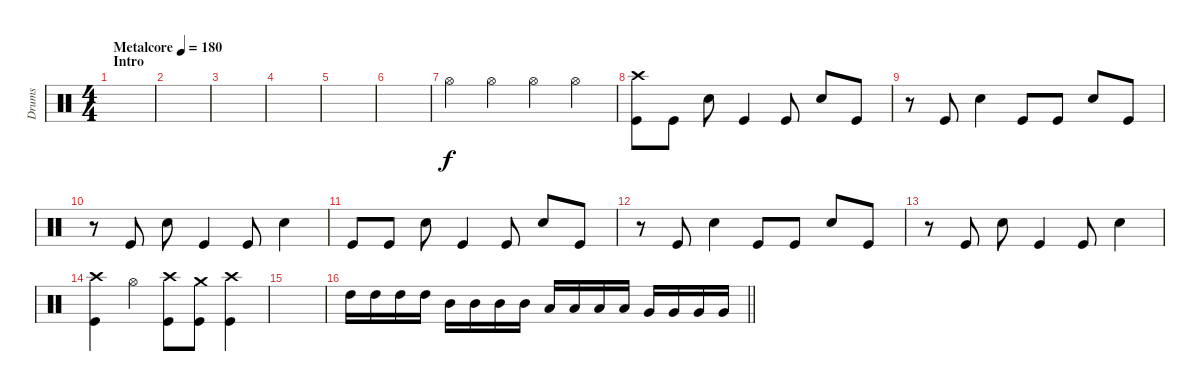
\track ("Drums" "Drums") {instrument percussion}
\staff {score}
\articulation defaults
\ts (4 4)
\section ("" "Intro")
\tempo (180 "Metalcore")
\clef neutral
\ks c
|
|
|
|
|
|
"Hi-Hat (open)".4 "Hi-Hat (open)".4 "Hi-Hat (open)".4 "Hi-Hat (open)".4 |
("Crash high (hit)" "Kick (hit)").8 "Kick (hit)".8 "Electric Snare (hit)".8 "Kick (hit)".4 "Kick (hit)".8 "Electric Snare (hit)".8 "Kick (hit)".8 |
r.8 "Kick (hit)".8 "Electric Snare (hit)".4 "Kick (hit)".8 "Kick (hit)".8 "Electric Snare (hit)".8 "Kick (hit)".8 |
r.8 "Kick (hit)".8 "Electric Snare (hit)".8 "Kick (hit)".4 "Kick (hit)".8 "Electric Snare (hit)".4 |
"Kick (hit)".8 "Kick (hit)".8 "Electric Snare (hit)".8 "Kick (hit)".4 "Kick (hit)".8 "Electric Snare (hit)".8 "Kick (hit)".8 |
r.8 "Kick (hit)".8 "Electric Snare (hit)".4 "Kick (hit)".8 "Kick (hit)".8 "Electric Snare (hit)".8 "Kick (hit)".8 |
r.8 "Kick (hit)".8 "Electric Snare (hit)".8 "Kick (hit)".4 "Kick (hit)".8 "Electric Snare (hit)".4 |
("Crash high (hit)" "Kick (hit)").4 "Hi-Hat (open)".4 ("Crash high (hit)" "Kick (hit)").8 ("Crash medium (hit)" "Kick (hit)").8 ("Crash high (hit)" "Kick (hit)").4 |
|
\barLineRight lightlight "High Tom (hit)".16 "High Tom (hit)".16 "High Tom (hit)".16 "High Tom (hit)".16 "Mid Tom (hit)".16 "Mid Tom (hit)".16 "Mid Tom (hit)".16 "Mid Tom (hit)".16 "Low Tom (hit)".16 "Low Tom (hit)".16 "Low Tom (hit)".16 "Low Tom (hit)".16 "Very Low Tom (hit)".16 "Very Low Tom (hit)".16 "Very Low Tom (hit)".16 "Very Low Tom (hit)".16
